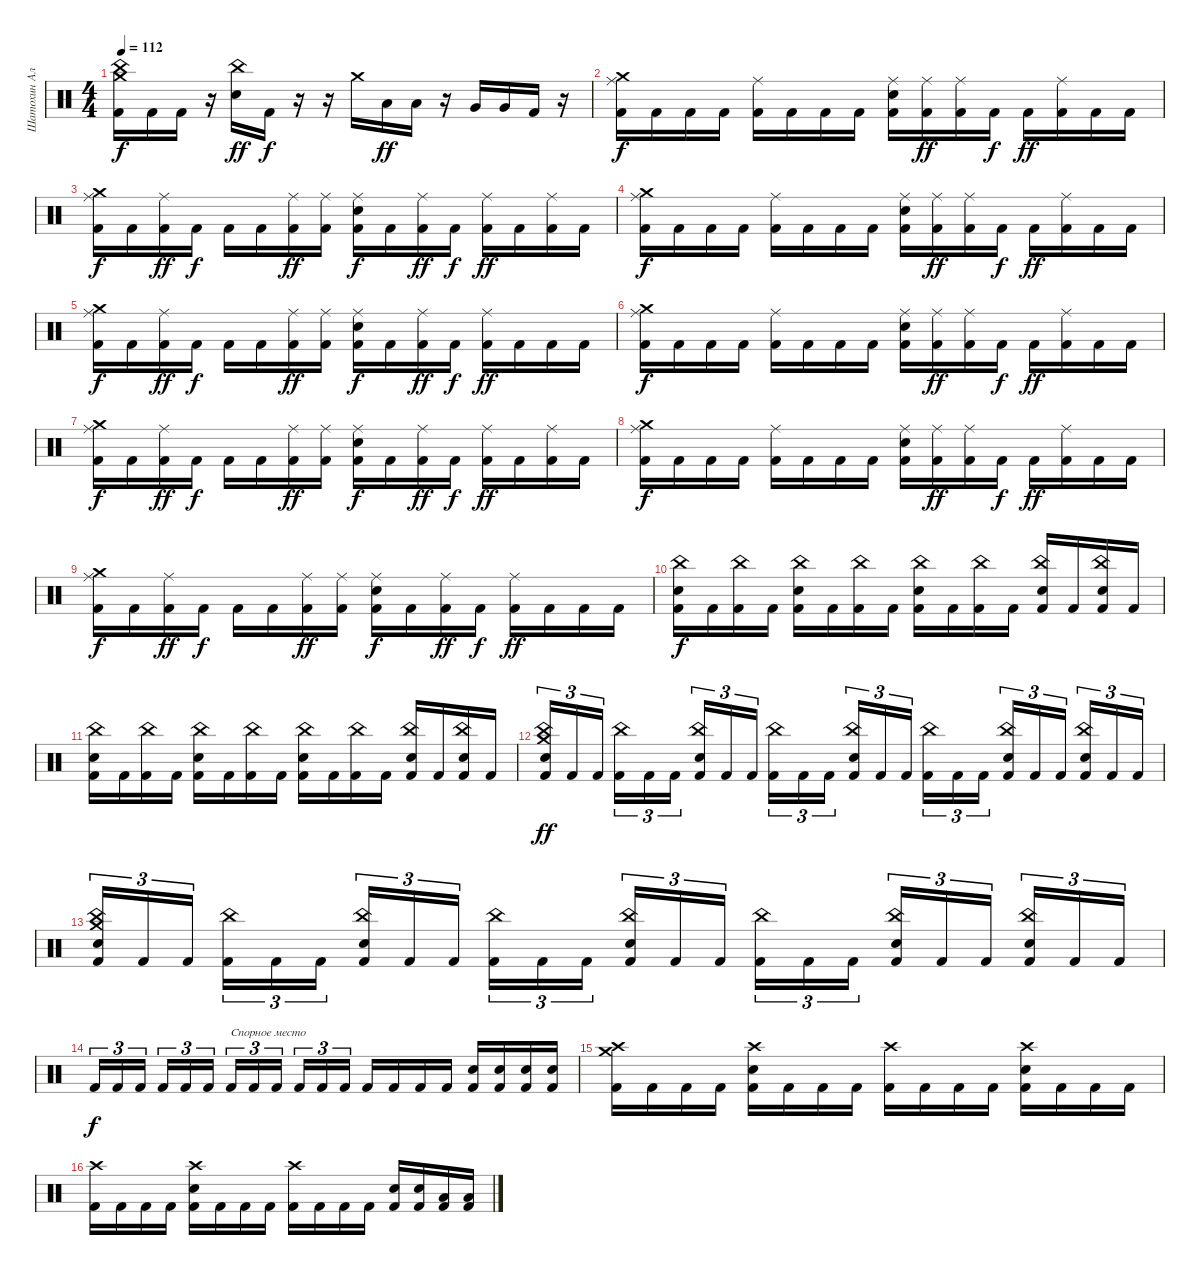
\track ("Шатохин Алексей" "Шатохин Ал") {instrument percussion}
\staff {score}
\articulation defaults
\ts (4 4)
\tempo 112
\clef neutral
\ks c
("Kick (hit) 2" "Crash medium (hit)" "China (hit)").16{dy f} "Kick (hit) 2".16 "Kick (hit) 2".16 r.16 ("Electric Snare (hit)" "China (hit)").16{dy ff} "Kick (hit) 2".16{dy f} r.16 r.16 "Crash medium (hit)".16 "Low Tom (hit)".16{dy ff} "Low Tom (hit)".16 r.16 "Very Low Tom (hit)".16 "Very Low Tom (hit)".16 "Kick (hit) 2".16 r.16 |
("Kick (hit) 2" "Crash medium (hit)" "Ride (middle)").16{dy f} "Kick (hit) 2".16 "Kick (hit) 2".16 "Kick (hit) 2".16 ("Kick (hit) 2" "Ride (middle)").16 "Kick (hit) 2".16 "Kick (hit) 2".16 "Kick (hit) 2".16 ("Kick (hit) 2" "Electric Snare (hit)" "Ride (middle)").16 ("Kick (hit) 2" "Ride (middle)").16{dy ff} ("Kick (hit) 2" "Ride (middle)").16 "Kick (hit) 2".16{dy f} "Kick (hit) 2".16{dy ff} ("Kick (hit) 2" "Ride (middle)").16 "Kick (hit) 2".16 "Kick (hit) 2".16 |
("Kick (hit) 2" "Crash medium (hit)" "Ride (middle)").16{dy f} "Kick (hit) 2".16 ("Kick (hit) 2" "Ride (middle)").16{dy ff} "Kick (hit) 2".16{dy f} "Kick (hit) 2".16 "Kick (hit) 2".16 ("Kick (hit) 2" "Ride (middle)").16{dy ff} ("Kick (hit) 2" "Ride (middle)").16 ("Kick (hit) 2" "Electric Snare (hit)" "Ride (middle)").16{dy f} "Kick (hit) 2".16 ("Kick (hit) 2" "Ride (middle)").16{dy ff} "Kick (hit) 2".16{dy f} ("Kick (hit) 2" "Ride (middle)").16{dy ff} "Kick (hit) 2".16 ("Kick (hit) 2" "Ride (middle)").16 "Kick (hit) 2".16 |
("Kick (hit) 2" "Crash medium (hit)" "Ride (middle)").16{dy f} "Kick (hit) 2".16 "Kick (hit) 2".16 "Kick (hit) 2".16 ("Kick (hit) 2" "Ride (middle)").16 "Kick (hit) 2".16 "Kick (hit) 2".16 "Kick (hit) 2".16 ("Kick (hit) 2" "Electric Snare (hit)" "Ride (middle)").16 ("Kick (hit) 2" "Ride (middle)").16{dy ff} ("Kick (hit) 2" "Ride (middle)").16 "Kick (hit) 2".16{dy f} "Kick (hit) 2".16{dy ff} ("Kick (hit) 2" "Ride (middle)").16 "Kick (hit) 2".16 "Kick (hit) 2".16 |
("Kick (hit) 2" "Crash medium (hit)" "Ride (middle)").16{dy f} "Kick (hit) 2".16 ("Kick (hit) 2" "Ride (middle)").16{dy ff} "Kick (hit) 2".16{dy f} "Kick (hit) 2".16 "Kick (hit) 2".16 ("Kick (hit) 2" "Ride (middle)").16{dy ff} ("Kick (hit) 2" "Ride (middle)").16 ("Kick (hit) 2" "Electric Snare (hit)" "Ride (middle)").16{dy f} "Kick (hit) 2".16 ("Kick (hit) 2" "Ride (middle)").16{dy ff} "Kick (hit) 2".16{dy f} ("Kick (hit) 2" "Ride (middle)").16{dy ff} "Kick (hit) 2".16 "Kick (hit) 2".16 "Kick (hit) 2".16 |
("Kick (hit) 2" "Crash medium (hit)" "Ride (middle)").16{dy f} "Kick (hit) 2".16 "Kick (hit) 2".16 "Kick (hit) 2".16 ("Kick (hit) 2" "Ride (middle)").16 "Kick (hit) 2".16 "Kick (hit) 2".16 "Kick (hit) 2".16 ("Kick (hit) 2" "Electric Snare (hit)" "Ride (middle)").16 ("Kick (hit) 2" "Ride (middle)").16{dy ff} ("Kick (hit) 2" "Ride (middle)").16 "Kick (hit) 2".16{dy f} "Kick (hit) 2".16{dy ff} ("Kick (hit) 2" "Ride (middle)").16 "Kick (hit) 2".16 "Kick (hit) 2".16 |
("Kick (hit) 2" "Crash medium (hit)" "Ride (middle)").16{dy f} "Kick (hit) 2".16 ("Kick (hit) 2" "Ride (middle)").16{dy ff} "Kick (hit) 2".16{dy f} "Kick (hit) 2".16 "Kick (hit) 2".16 ("Kick (hit) 2" "Ride (middle)").16{dy ff} ("Kick (hit) 2" "Ride (middle)").16 ("Kick (hit) 2" "Electric Snare (hit)" "Ride (middle)").16{dy f} "Kick (hit) 2".16 ("Kick (hit) 2" "Ride (middle)").16{dy ff} "Kick (hit) 2".16{dy f} ("Kick (hit) 2" "Ride (middle)").16{dy ff} "Kick (hit) 2".16 ("Kick (hit) 2" "Ride (middle)").16 "Kick (hit) 2".16 |
("Kick (hit) 2" "Crash medium (hit)" "Ride (middle)").16{dy f} "Kick (hit) 2".16 "Kick (hit) 2".16 "Kick (hit) 2".16 ("Kick (hit) 2" "Ride (middle)").16 "Kick (hit) 2".16 "Kick (hit) 2".16 "Kick (hit) 2".16 ("Kick (hit) 2" "Electric Snare (hit)" "Ride (middle)").16 ("Kick (hit) 2" "Ride (middle)").16{dy ff} ("Kick (hit) 2" "Ride (middle)").16 "Kick (hit) 2".16{dy f} "Kick (hit) 2".16{dy ff} ("Kick (hit) 2" "Ride (middle)").16 "Kick (hit) 2".16 "Kick (hit) 2".16 |
("Kick (hit) 2" "Crash medium (hit)" "Ride (middle)").16{dy f} "Kick (hit) 2".16 ("Kick (hit) 2" "Ride (middle)").16{dy ff} "Kick (hit) 2".16{dy f} "Kick (hit) 2".16 "Kick (hit) 2".16 ("Kick (hit) 2" "Ride (middle)").16{dy ff} ("Kick (hit) 2" "Ride (middle)").16 ("Kick (hit) 2" "Electric Snare (hit)" "Ride (middle)").16{dy f} "Kick (hit) 2".16 ("Kick (hit) 2" "Ride (middle)").16{dy ff} "Kick (hit) 2".16{dy f} ("Kick (hit) 2" "Ride (middle)").16{dy ff} "Kick (hit) 2".16 "Kick (hit) 2".16 "Kick (hit) 2".16 |
("China (hit)" "Electric Snare (hit)" "Kick (hit) 2").16{dy f} "Kick (hit) 2".16 ("China (hit)" "Kick (hit) 2").16 "Kick (hit) 2".16 ("China (hit)" "Electric Snare (hit)" "Kick (hit) 2").16 "Kick (hit) 2".16 ("China (hit)" "Kick (hit) 2").16 "Kick (hit) 2".16 ("China (hit)" "Electric Snare (hit)" "Kick (hit) 2").16 "Kick (hit) 2".16 ("China (hit)" "Kick (hit) 2").16 "Kick (hit) 2".16 ("China (hit)" "Electric Snare (hit)" "Kick (hit) 2").16 "Kick (hit) 2".16 ("China (hit)" "Electric Snare (hit)" "Kick (hit) 2").16 "Kick (hit) 2".16 |
("China (hit)" "Electric Snare (hit)" "Kick (hit) 2").16 "Kick (hit) 2".16 ("China (hit)" "Kick (hit) 2").16 "Kick (hit) 2".16 ("China (hit)" "Electric Snare (hit)" "Kick (hit) 2").16 "Kick (hit) 2".16 ("China (hit)" "Kick (hit) 2").16 "Kick (hit) 2".16 ("China (hit)" "Electric Snare (hit)" "Kick (hit) 2").16 "Kick (hit) 2".16 ("China (hit)" "Kick (hit) 2").16 "Kick (hit) 2".16 ("China (hit)" "Electric Snare (hit)" "Kick (hit) 2").16 "Kick (hit) 2".16 ("China (hit)" "Electric Snare (hit)" "Kick (hit) 2").16 "Kick (hit) 2".16 |
("Crash medium (hit)" "China (hit)" "Electric Snare (hit)" "Kick (hit) 2").16{tu (3 2) dy ff} "Kick (hit) 2".16{tu (3 2)} "Kick (hit) 2".16{tu (3 2) beam splitsecondary} ("China (hit)" "Kick (hit) 2").16{tu (3 2)} "Kick (hit) 2".16{tu (3 2)} "Kick (hit) 2".16{tu (3 2)} ("China (hit)" "Electric Snare (hit)" "Kick (hit) 2").16{tu (3 2)} "Kick (hit) 2".16{tu (3 2)} "Kick (hit) 2".16{tu (3 2) beam splitsecondary} ("China (hit)" "Kick (hit) 2").16{tu (3 2)} "Kick (hit) 2".16{tu (3 2)} "Kick (hit) 2".16{tu (3 2)} ("China (hit)" "Electric Snare (hit)" "Kick (hit) 2").16{tu (3 2)} "Kick (hit) 2".16{tu (3 2)} "Kick (hit) 2".16{tu (3 2) beam splitsecondary} ("China (hit)" "Kick (hit) 2").16{tu (3 2)} "Kick (hit) 2".16{tu (3 2)} "Kick (hit) 2".16{tu (3 2)} ("China (hit)" "Electric Snare (hit)" "Kick (hit) 2").16{tu (3 2)} "Kick (hit) 2".16{tu (3 2)} "Kick (hit) 2".16{tu (3 2) beam splitsecondary} ("China (hit)" "Electric Snare (hit)" "Kick (hit) 2").16{tu (3 2)} "Kick (hit) 2".16{tu (3 2)} "Kick (hit) 2".16{tu (3 2)} |
("Crash medium (hit)" "China (hit)" "Electric Snare (hit)" "Kick (hit) 2").16{tu (3 2)} "Kick (hit) 2".16{tu (3 2)} "Kick (hit) 2".16{tu (3 2) beam splitsecondary} ("China (hit)" "Kick (hit) 2").16{tu (3 2)} "Kick (hit) 2".16{tu (3 2)} "Kick (hit) 2".16{tu (3 2)} ("China (hit)" "Electric Snare (hit)" "Kick (hit) 2").16{tu (3 2)} "Kick (hit) 2".16{tu (3 2)} "Kick (hit) 2".16{tu (3 2) beam splitsecondary} ("China (hit)" "Kick (hit) 2").16{tu (3 2)} "Kick (hit) 2".16{tu (3 2)} "Kick (hit) 2".16{tu (3 2)} ("China (hit)" "Electric Snare (hit)" "Kick (hit) 2").16{tu (3 2)} "Kick (hit) 2".16{tu (3 2)} "Kick (hit) 2".16{tu (3 2) beam splitsecondary} ("China (hit)" "Kick (hit) 2").16{tu (3 2)} "Kick (hit) 2".16{tu (3 2)} "Kick (hit) 2".16{tu (3 2)} ("China (hit)" "Electric Snare (hit)" "Kick (hit) 2").16{tu (3 2)} "Kick (hit) 2".16{tu (3 2)} "Kick (hit) 2".16{tu (3 2) beam splitsecondary} ("China (hit)" "Electric Snare (hit)" "Kick (hit) 2").16{tu (3 2)} "Kick (hit) 2".16{tu (3 2)} "Kick (hit) 2".16{tu (3 2)} |
"Kick (hit) 2".16{tu (3 2) dy f} "Kick (hit) 2".16{tu (3 2)} "Kick (hit) 2".16{tu (3 2) beam splitsecondary} "Kick (hit) 2".16{tu (3 2)} "Kick (hit) 2".16{tu (3 2)} "Kick (hit) 2".16{tu (3 2)} "Kick (hit) 2".16{tu (3 2) txt "Спорное место"} "Kick (hit) 2".16{tu (3 2)} "Kick (hit) 2".16{tu (3 2) beam splitsecondary} "Kick (hit) 2".16{tu (3 2)} "Kick (hit) 2".16{tu (3 2)} "Kick (hit) 2".16{tu (3 2)} "Kick (hit) 2".16 "Kick (hit) 2".16 "Kick (hit) 2".16 "Kick (hit) 2".16 ("Electric Snare (hit)" "Kick (hit) 2").16 ("Electric Snare (hit)" "Kick (hit) 2").16 ("Electric Snare (hit)" "Kick (hit) 2").16 ("Electric Snare (hit)" "Kick (hit) 2").16 |
("Crash medium (hit)" "Crash high (hit)" "Kick (hit) 2").16 "Kick (hit) 2".16 "Kick (hit) 2".16 "Kick (hit) 2".16 ("Crash high (hit)" "Electric Snare (hit)" "Kick (hit) 2").16 "Kick (hit) 2".16 "Kick (hit) 2".16 "Kick (hit) 2".16 ("Crash high (hit)" "Kick (hit) 2").16 "Kick (hit) 2".16 "Kick (hit) 2".16 "Kick (hit) 2".16 ("Crash high (hit)" "Electric Snare (hit)" "Kick (hit) 2").16 "Kick (hit) 2".16 "Kick (hit) 2".16 "Kick (hit) 2".16 |
("Crash high (hit)" "Kick (hit) 2").16 "Kick (hit) 2".16 "Kick (hit) 2".16 "Kick (hit) 2".16 ("Crash high (hit)" "Electric Snare (hit)" "Kick (hit) 2").16 "Kick (hit) 2".16 "Kick (hit) 2".16 "Kick (hit) 2".16 ("Crash high (hit)" "Kick (hit) 2").16 "Kick (hit) 2".16 "Kick (hit) 2".16 "Kick (hit) 2".16 ("Electric Snare (hit)" "Kick (hit) 2").16 ("Electric Snare (hit)" "Kick (hit) 2").16 ("Low Tom (hit)" "Kick (hit) 2").16 ("Low Tom (hit)" "Kick (hit) 2").16
